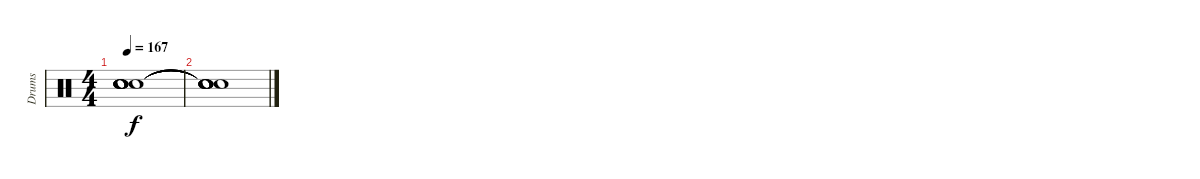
\track ("Drums" "Drums") {instrument percussion}
\staff {score}
\articulation defaults
\ts (4 4)
\tempo 167
\clef neutral
\ks c
("Snare (hit)"{t} "Snare (hit)"{t} "Snare (hit)"{t} "Snare (hit)"{t} "Snare (hit)"{t} "Snare (hit)"{t}).1{dy f} |
("Snare (hit)"{t} "Snare (hit)"{t} "Snare (hit)"{t} "Snare (hit)"{t} "Snare (hit)"{t} "Snare (hit)"{t}).1
